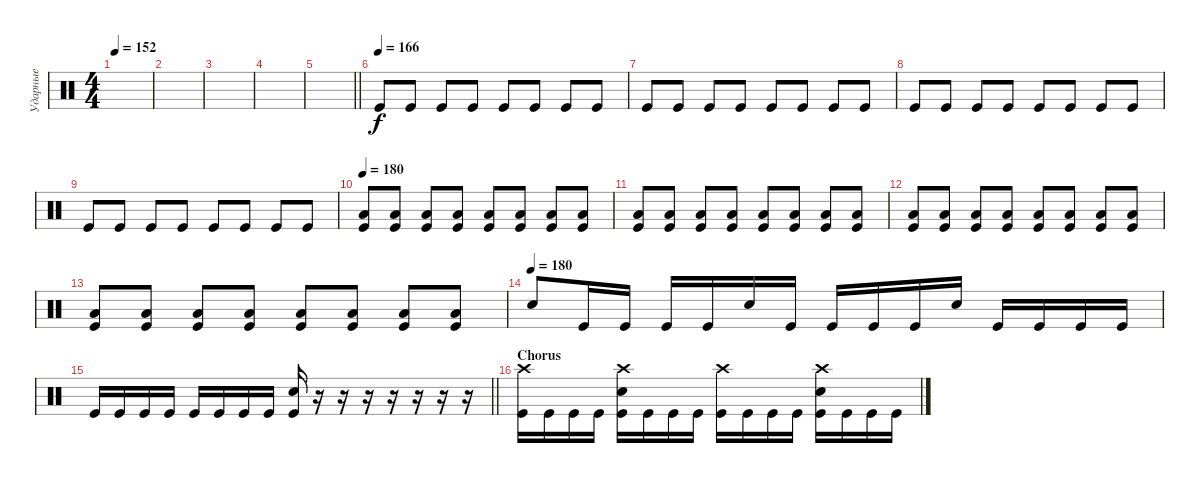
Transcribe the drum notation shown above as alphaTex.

\track ("Ударные" "Ударные") {instrument percussion}
\staff {score}
\articulation defaults
\ts (4 4)
\tempo 152
\clef neutral
\ks c
|
|
|
|
\barLineRight lightlight
|
\section ("" "")
\tempo (166)
"Kick (hit)".8{volume 8} "Kick (hit)".8 "Kick (hit)".8 "Kick (hit)".8 "Kick (hit)".8 "Kick (hit)".8 "Kick (hit)".8 "Kick (hit)".8 |
"Kick (hit)".8 "Kick (hit)".8 "Kick (hit)".8 "Kick (hit)".8 "Kick (hit)".8 "Kick (hit)".8 "Kick (hit)".8 "Kick (hit)".8 |
"Kick (hit)".8 "Kick (hit)".8 "Kick (hit)".8 "Kick (hit)".8 "Kick (hit)".8 "Kick (hit)".8 "Kick (hit)".8 "Kick (hit)".8 |
"Kick (hit)".8 "Kick (hit)".8 "Kick (hit)".8 "Kick (hit)".8 "Kick (hit)".8 "Kick (hit)".8 "Kick (hit)".8 "Kick (hit)".8 |
\tempo 180
("Low Floor Tom (hit)" "Kick (hit)").8{volume 16} ("Low Floor Tom (hit)" "Kick (hit)").8 ("Low Floor Tom (hit)" "Kick (hit)").8 ("Low Floor Tom (hit)" "Kick (hit)").8 ("Low Floor Tom (hit)" "Kick (hit)").8 ("Low Floor Tom (hit)" "Kick (hit)").8 ("Low Floor Tom (hit)" "Kick (hit)").8 ("Low Floor Tom (hit)" "Kick (hit)").8 |
("Low Floor Tom (hit)" "Kick (hit)").8 ("Low Floor Tom (hit)" "Kick (hit)").8 ("Low Floor Tom (hit)" "Kick (hit)").8 ("Low Floor Tom (hit)" "Kick (hit)").8 ("Low Floor Tom (hit)" "Kick (hit)").8 ("Low Floor Tom (hit)" "Kick (hit)").8 ("Low Floor Tom (hit)" "Kick (hit)").8 ("Low Floor Tom (hit)" "Kick (hit)").8 |
("Low Floor Tom (hit)" "Kick (hit)").8 ("Low Floor Tom (hit)" "Kick (hit)").8 ("Low Floor Tom (hit)" "Kick (hit)").8 ("Low Floor Tom (hit)" "Kick (hit)").8 ("Low Floor Tom (hit)" "Kick (hit)").8 ("Low Floor Tom (hit)" "Kick (hit)").8 ("Low Floor Tom (hit)" "Kick (hit)").8 ("Low Floor Tom (hit)" "Kick (hit)").8 |
("Low Floor Tom (hit)" "Kick (hit)").8 ("Low Floor Tom (hit)" "Kick (hit)").8 ("Low Floor Tom (hit)" "Kick (hit)").8 ("Low Floor Tom (hit)" "Kick (hit)").8 ("Low Floor Tom (hit)" "Kick (hit)").8 ("Low Floor Tom (hit)" "Kick (hit)").8 ("Low Floor Tom (hit)" "Kick (hit)").8 ("Low Floor Tom (hit)" "Kick (hit)").8 |
\tempo (180)
"Electric Snare (hit)".8 "Kick (hit)".16 "Kick (hit)".16 "Kick (hit)".16 "Kick (hit)".16 "Electric Snare (hit)".16 "Kick (hit)".16 "Kick (hit)".16 "Kick (hit)".16 "Kick (hit)".16 "Electric Snare (hit)".16 "Kick (hit)".16 "Kick (hit)".16 "Kick (hit)".16 "Kick (hit)".16 |
\barLineRight lightlight "Kick (hit)".16 "Kick (hit)".16 "Kick (hit)".16 "Kick (hit)".16 "Kick (hit)".16 "Kick (hit)".16 "Kick (hit)".16 "Kick (hit)".16
("Electric Snare (hit)" "Kick (hit)").16 r.16 r.16 r.16 r.16 r.16 r.16 r.16 |
\section ("" "Chorus")
("Crash high (hit)" "Kick (hit)").16 "Kick (hit)".16 "Kick (hit)".16 "Kick (hit)".16 ("Crash high (hit)" "Electric Snare (hit)" "Kick (hit)").16 "Kick (hit)".16 "Kick (hit)".16 "Kick (hit)".16 ("Crash high (hit)" "Kick (hit)").16 "Kick (hit)".16 "Kick (hit)".16 "Kick (hit)".16 ("Crash high (hit)" "Electric Snare (hit)" "Kick (hit)").16 "Kick (hit)".16 "Kick (hit)".16 "Kick (hit)".16
